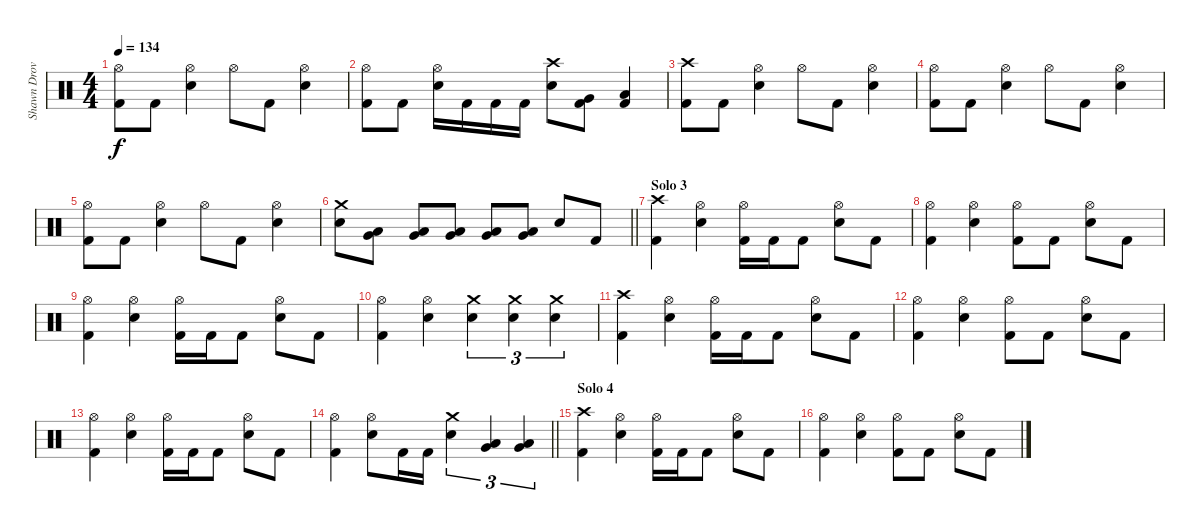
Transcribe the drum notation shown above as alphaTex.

\track ("Shawn Drover" "Shawn Drov") {instrument percussion}
\staff {score}
\articulation defaults
\ts (4 4)
\tempo 134
\clef neutral
\ks c
("Hi-Hat (open)" "Kick (hit) 2").8{dy f} "Kick (hit) 2".8 ("Hi-Hat (open)" "Snare (hit) 2").4 "Hi-Hat (open)".8 "Kick (hit) 2".8 ("Hi-Hat (open)" "Snare (hit) 2").4 |
("Hi-Hat (open)" "Kick (hit) 2").8 "Kick (hit) 2".8 ("Hi-Hat (open)" "Snare (hit) 2").16 "Kick (hit) 2".16 "Kick (hit) 2".16 "Kick (hit) 2".16 ("Crash high (hit)" "Snare (hit) 2").8 ("Very Low Tom (hit)" "Kick (hit) 2").8 ("Low Floor Tom (hit)" "Kick (hit) 2").4 |
("Crash high (hit)" "Kick (hit) 2").8 "Kick (hit) 2".8 ("Hi-Hat (open)" "Snare (hit) 2").4 "Hi-Hat (open)".8 "Kick (hit) 2".8 ("Hi-Hat (open)" "Snare (hit) 2").4 |
("Hi-Hat (open)" "Kick (hit) 2").8 "Kick (hit) 2".8 ("Hi-Hat (open)" "Snare (hit) 2").4 "Hi-Hat (open)".8 "Kick (hit) 2".8 ("Hi-Hat (open)" "Snare (hit) 2").4 |
("Hi-Hat (open)" "Kick (hit) 2").8 "Kick (hit) 2".8 ("Hi-Hat (open)" "Snare (hit) 2").4 "Hi-Hat (open)".8 "Kick (hit) 2".8 ("Hi-Hat (open)" "Snare (hit) 2").4 |
\barLineRight lightlight
("Crash medium (hit)" "Snare (hit) 2").8 ("Low Tom (hit)" "Very Low Tom (hit)").8 ("Low Tom (hit)" "Very Low Tom (hit)").8 ("Low Tom (hit)" "Very Low Tom (hit)").8 ("Very Low Tom (hit)" "Low Floor Tom (hit)").8 ("Very Low Tom (hit)" "Low Floor Tom (hit)").8 "Snare (hit) 2".8 "Kick (hit) 2".8 |
\section ("" "Solo 3")
("Crash high (hit)" "Kick (hit) 2").4 ("Hi-Hat (open)" "Snare (hit) 2").4 ("Hi-Hat (open)" "Kick (hit) 2").16 "Kick (hit) 2".16 "Kick (hit) 2".8 ("Hi-Hat (open)" "Snare (hit) 2").8 "Kick (hit) 2".8 |
("Hi-Hat (open)" "Kick (hit) 2").4 ("Hi-Hat (open)" "Snare (hit) 2").4 ("Hi-Hat (open)" "Kick (hit) 2").8 "Kick (hit) 2".8 ("Hi-Hat (open)" "Snare (hit) 2").8 "Kick (hit) 2".8 |
("Hi-Hat (open)" "Kick (hit) 2").4 ("Hi-Hat (open)" "Snare (hit) 2").4 ("Hi-Hat (open)" "Kick (hit) 2").16 "Kick (hit) 2".16 "Kick (hit) 2".8 ("Hi-Hat (open)" "Snare (hit) 2").8 "Kick (hit) 2".8 |
("Hi-Hat (open)" "Kick (hit) 2").4 ("Hi-Hat (open)" "Snare (hit) 2").4 ("Crash medium (hit)" "Snare (hit) 2").4{tu (3 2)} ("Crash medium (hit)" "Snare (hit) 2").4{tu (3 2)} ("Crash medium (hit)" "Snare (hit) 2").4{tu (3 2)} |
("Crash high (hit)" "Kick (hit) 2").4 ("Hi-Hat (open)" "Snare (hit) 2").4 ("Hi-Hat (open)" "Kick (hit) 2").16 "Kick (hit) 2".16 "Kick (hit) 2".8 ("Hi-Hat (open)" "Snare (hit) 2").8 "Kick (hit) 2".8 |
("Hi-Hat (open)" "Kick (hit) 2").4 ("Hi-Hat (open)" "Snare (hit) 2").4 ("Hi-Hat (open)" "Kick (hit) 2").8 "Kick (hit) 2".8 ("Hi-Hat (open)" "Snare (hit) 2").8 "Kick (hit) 2".8 |
("Hi-Hat (open)" "Kick (hit) 2").4 ("Hi-Hat (open)" "Snare (hit) 2").4 ("Hi-Hat (open)" "Kick (hit) 2").16 "Kick (hit) 2".16 "Kick (hit) 2".8 ("Hi-Hat (open)" "Snare (hit) 2").8 "Kick (hit) 2".8 |
\barLineRight lightlight
("Hi-Hat (open)" "Kick (hit) 2").4 ("Hi-Hat (open)" "Snare (hit) 2").8 "Kick (hit) 2".16 "Kick (hit) 2".16 ("Crash medium (hit)" "Snare (hit) 2").4{tu (3 2)} ("Low Tom (hit)" "Very Low Tom (hit)").4{tu (3 2)} ("Very Low Tom (hit)" "Low Floor Tom (hit)").4{tu (3 2)} |
\section ("" "Solo 4")
("Crash high (hit)" "Kick (hit) 2").4 ("Hi-Hat (open)" "Snare (hit) 2").4 ("Hi-Hat (open)" "Kick (hit) 2").16 "Kick (hit) 2".16 "Kick (hit) 2".8 ("Hi-Hat (open)" "Snare (hit) 2").8 "Kick (hit) 2".8 |
("Hi-Hat (open)" "Kick (hit) 2").4 ("Hi-Hat (open)" "Snare (hit) 2").4 ("Hi-Hat (open)" "Kick (hit) 2").8 "Kick (hit) 2".8 ("Hi-Hat (open)" "Snare (hit) 2").8 "Kick (hit) 2".8
